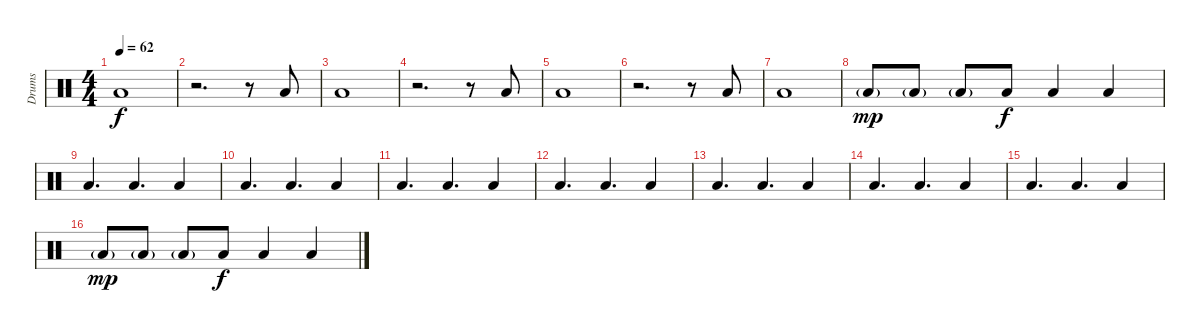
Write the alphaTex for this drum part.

\track ("Drums" "Drums") {instrument percussion}
\staff {score}
\articulation defaults
\ts (4 4)
\tempo 62
\clef neutral
\ks c "Low Floor Tom (hit)".1{dy f}
|
r.2{d} r.8 "Low Floor Tom (hit)".8 |
"Low Floor Tom (hit)".1 |
r.2{d} r.8 "Low Floor Tom (hit)".8 |
"Low Floor Tom (hit)".1 |
r.2{d} r.8 "Low Floor Tom (hit)".8 |
"Low Floor Tom (hit)".1 |
"Low Floor Tom (hit)"{g}.8{dy mp} "Low Floor Tom (hit)"{g}.8 "Low Floor Tom (hit)"{g}.8 "Low Floor Tom (hit)".8{dy f} "Low Floor Tom (hit)".4 "Low Floor Tom (hit)".4 |
"Low Floor Tom (hit)".4{d} "Low Floor Tom (hit)".4{d} "Low Floor Tom (hit)".4 |
"Low Floor Tom (hit)".4{d} "Low Floor Tom (hit)".4{d} "Low Floor Tom (hit)".4 |
"Low Floor Tom (hit)".4{d} "Low Floor Tom (hit)".4{d} "Low Floor Tom (hit)".4 |
"Low Floor Tom (hit)".4{d} "Low Floor Tom (hit)".4{d} "Low Floor Tom (hit)".4 |
"Low Floor Tom (hit)".4{d} "Low Floor Tom (hit)".4{d} "Low Floor Tom (hit)".4 |
"Low Floor Tom (hit)".4{d} "Low Floor Tom (hit)".4{d} "Low Floor Tom (hit)".4 |
"Low Floor Tom (hit)".4{d} "Low Floor Tom (hit)".4{d} "Low Floor Tom (hit)".4 |
"Low Floor Tom (hit)"{g}.8{dy mp} "Low Floor Tom (hit)"{g}.8 "Low Floor Tom (hit)"{g}.8 "Low Floor Tom (hit)".8{dy f} "Low Floor Tom (hit)".4 "Low Floor Tom (hit)".4
